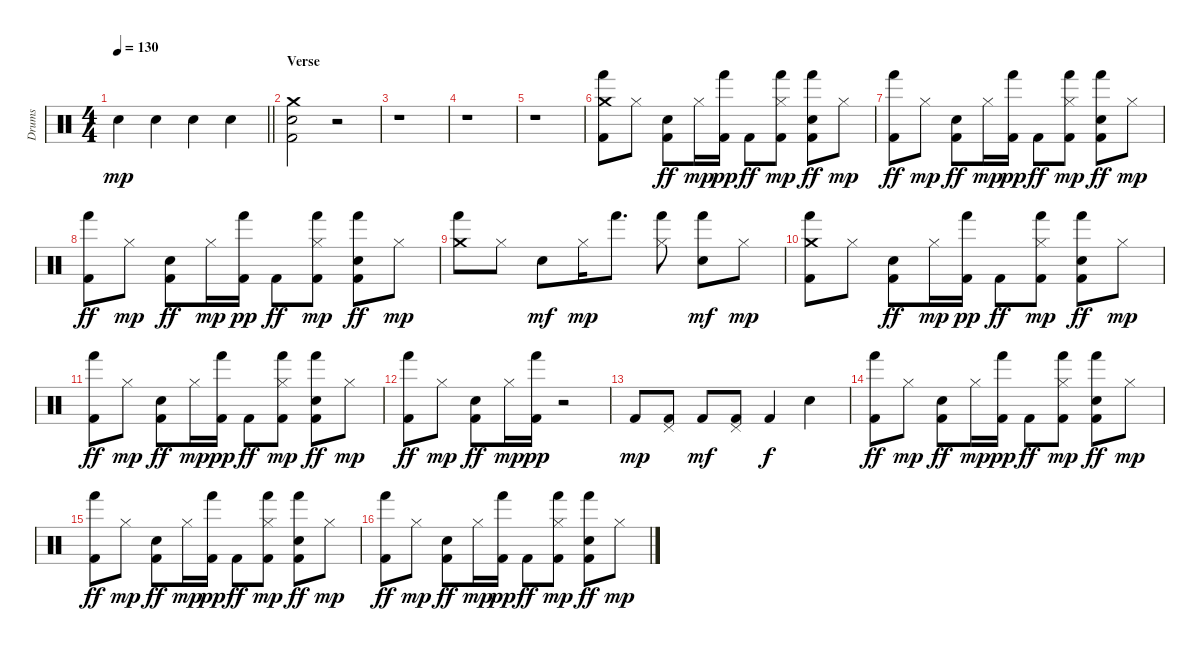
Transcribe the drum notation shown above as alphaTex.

\track ("Drums" "Drums") {instrument percussion}
\staff {score}
\articulation defaults
\ts (4 4)
\tempo 130
\clef neutral
\barLineRight lightlight
\ks c "Snare (hit) 2".4{dy mp} "Snare (hit) 2".4 "Snare (hit) 2".4 "Snare (hit) 2".4
|
\section ("" "Verse")
("Kick (hit) 2" "Snare (hit) 2" "Crash medium (hit)").2 r.2 |
r.1 |
r.1 |
r.1 |
("Hand (hit)" "Kick (hit) 2" "Crash medium (hit)").8 "Hi-Hat (closed)".8 ("Electric Snare (hit)" "Kick (hit) 2").8{dy ff} "Hi-Hat (closed)".16{dy mp} ("Hand (hit)" "Kick (hit) 2").16{dy pp} "Kick (hit) 2".8{dy ff} ("Hand (hit)" "Kick (hit) 2" "Hi-Hat (closed)").8{dy mp} ("Hand (hit)" "Electric Snare (hit)" "Kick (hit) 2").8{dy ff} "Hi-Hat (closed)".8{dy mp} |
("Hand (hit)" "Kick (hit) 2").8{dy ff} "Hi-Hat (closed)".8{dy mp} ("Electric Snare (hit)" "Kick (hit) 2").8{dy ff} "Hi-Hat (closed)".16{dy mp} ("Hand (hit)" "Kick (hit) 2").16{dy pp} "Kick (hit) 2".8{dy ff} ("Hand (hit)" "Kick (hit) 2" "Hi-Hat (closed)").8{dy mp} ("Hand (hit)" "Electric Snare (hit)" "Kick (hit) 2").8{dy ff} "Hi-Hat (closed)".8{dy mp} |
("Hand (hit)" "Kick (hit) 2").8{dy ff} "Hi-Hat (closed)".8{dy mp} ("Electric Snare (hit)" "Kick (hit) 2").8{dy ff} "Hi-Hat (closed)".16{dy mp} ("Hand (hit)" "Kick (hit) 2").16{dy pp} "Kick (hit) 2".8{dy ff} ("Hand (hit)" "Kick (hit) 2" "Hi-Hat (closed)").8{dy mp} ("Hand (hit)" "Electric Snare (hit)" "Kick (hit) 2").8{dy ff} "Hi-Hat (closed)".8{dy mp} |
("Hand (hit)" "Crash medium (hit)").8 "Hi-Hat (closed)".8 "Electric Snare (hit)".8{dy mf} "Hi-Hat (closed)".16{dy mp} "Hand (hit)".8{d} ("Hand (hit)" "Hi-Hat (closed)").8 ("Hand (hit)" "Electric Snare (hit)").8{dy mf} "Hi-Hat (closed)".8{dy mp} |
("Hand (hit)" "Kick (hit) 2" "Crash medium (hit)").8 "Hi-Hat (closed)".8 ("Electric Snare (hit)" "Kick (hit) 2").8{dy ff} "Hi-Hat (closed)".16{dy mp} ("Hand (hit)" "Kick (hit) 2").16{dy pp} "Kick (hit) 2".8{dy ff} ("Hand (hit)" "Kick (hit) 2" "Hi-Hat (closed)").8{dy mp} ("Hand (hit)" "Electric Snare (hit)" "Kick (hit) 2").8{dy ff} "Hi-Hat (closed)".8{dy mp} |
("Hand (hit)" "Kick (hit) 2").8{dy ff} "Hi-Hat (closed)".8{dy mp} ("Electric Snare (hit)" "Kick (hit) 2").8{dy ff} "Hi-Hat (closed)".16{dy mp} ("Hand (hit)" "Kick (hit) 2").16{dy pp} "Kick (hit) 2".8{dy ff} ("Hand (hit)" "Kick (hit) 2" "Hi-Hat (closed)").8{dy mp} ("Hand (hit)" "Electric Snare (hit)" "Kick (hit) 2").8{dy ff} "Hi-Hat (closed)".8{dy mp} |
("Hand (hit)" "Kick (hit) 2").8{dy ff} "Hi-Hat (closed)".8{dy mp} ("Electric Snare (hit)" "Kick (hit) 2").8{dy ff} "Hi-Hat (closed)".16{dy mp} ("Hand (hit)" "Kick (hit) 2").16{dy pp} r.2 |
"Kick (hit) 2".8{dy mp} ("Pedal Hi-Hat (hit)" "Kick (hit) 2").8 "Kick (hit) 2".8{dy mf} ("Pedal Hi-Hat (hit)" "Kick (hit) 2").8 "Kick (hit) 2".4{dy f} "Snare (hit) 2".4 |
("Hand (hit)" "Kick (hit) 2").8{dy ff} "Hi-Hat (closed)".8{dy mp} ("Electric Snare (hit)" "Kick (hit) 2").8{dy ff} "Hi-Hat (closed)".16{dy mp} ("Hand (hit)" "Kick (hit) 2").16{dy pp} "Kick (hit) 2".8{dy ff} ("Hand (hit)" "Kick (hit) 2" "Hi-Hat (closed)").8{dy mp} ("Hand (hit)" "Electric Snare (hit)" "Kick (hit) 2").8{dy ff} "Hi-Hat (closed)".8{dy mp} |
("Hand (hit)" "Kick (hit) 2").8{dy ff} "Hi-Hat (closed)".8{dy mp} ("Electric Snare (hit)" "Kick (hit) 2").8{dy ff} "Hi-Hat (closed)".16{dy mp} ("Hand (hit)" "Kick (hit) 2").16{dy pp} "Kick (hit) 2".8{dy ff} ("Hand (hit)" "Kick (hit) 2" "Hi-Hat (closed)").8{dy mp} ("Hand (hit)" "Electric Snare (hit)" "Kick (hit) 2").8{dy ff} "Hi-Hat (closed)".8{dy mp} |
("Hand (hit)" "Kick (hit) 2").8{dy ff} "Hi-Hat (closed)".8{dy mp} ("Electric Snare (hit)" "Kick (hit) 2").8{dy ff} "Hi-Hat (closed)".16{dy mp} ("Hand (hit)" "Kick (hit) 2").16{dy pp} "Kick (hit) 2".8{dy ff} ("Hand (hit)" "Kick (hit) 2" "Hi-Hat (closed)").8{dy mp} ("Hand (hit)" "Electric Snare (hit)" "Kick (hit) 2").8{dy ff} "Hi-Hat (closed)".8{dy mp}
